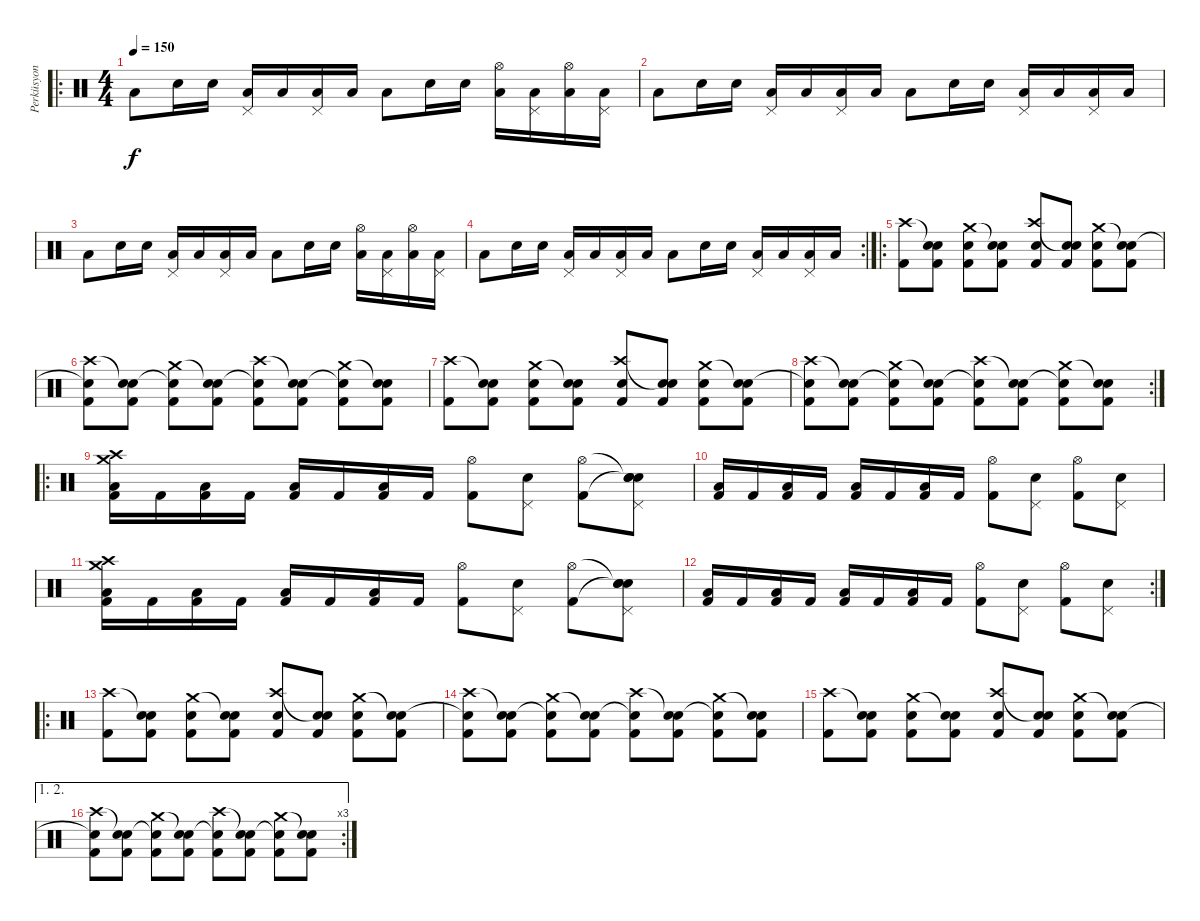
\track ("Perküsyon" "Perküsyon") {instrument percussion}
\staff {score}
\articulation defaults
\ro
\ts (4 4)
\tempo 150
\clef neutral
\ks c "Low Tom (hit)".8{dy f} "Electric Snare (hit)".16 "Electric Snare (hit)".16
("Pedal Hi-Hat (hit)" "Low Tom (hit)").16 "Low Tom (hit)".16 ("Pedal Hi-Hat (hit)" "Low Tom (hit)").16 "Low Tom (hit)".16 "Low Tom (hit)".8 "Electric Snare (hit)".16 "Electric Snare (hit)".16 ("Hi-Hat (open)" "Low Tom (hit)").16 ("Pedal Hi-Hat (hit)" "Low Tom (hit)").16 ("Hi-Hat (open)" "Low Tom (hit)").16 ("Pedal Hi-Hat (hit)" "Low Tom (hit)").16 |
"Low Tom (hit)".8 "Electric Snare (hit)".16 "Electric Snare (hit)".16 ("Pedal Hi-Hat (hit)" "Low Tom (hit)").16 "Low Tom (hit)".16 ("Pedal Hi-Hat (hit)" "Low Tom (hit)").16 "Low Tom (hit)".16 "Low Tom (hit)".8 "Electric Snare (hit)".16 "Electric Snare (hit)".16 ("Pedal Hi-Hat (hit)" "Low Tom (hit)").16 "Low Tom (hit)".16 ("Pedal Hi-Hat (hit)" "Low Tom (hit)").16 "Low Tom (hit)".16 |
"Low Tom (hit)".8 "Electric Snare (hit)".16 "Electric Snare (hit)".16 ("Pedal Hi-Hat (hit)" "Low Tom (hit)").16 "Low Tom (hit)".16 ("Pedal Hi-Hat (hit)" "Low Tom (hit)").16 "Low Tom (hit)".16 "Low Tom (hit)".8 "Electric Snare (hit)".16 "Electric Snare (hit)".16 ("Hi-Hat (open)" "Low Tom (hit)").16 ("Pedal Hi-Hat (hit)" "Low Tom (hit)").16 ("Hi-Hat (open)" "Low Tom (hit)").16 ("Pedal Hi-Hat (hit)" "Low Tom (hit)").16 |
\rc 2 "Low Tom (hit)".8 "Electric Snare (hit)".16 "Electric Snare (hit)".16
("Pedal Hi-Hat (hit)" "Low Tom (hit)").16 "Low Tom (hit)".16 ("Pedal Hi-Hat (hit)" "Low Tom (hit)").16 "Low Tom (hit)".16 "Low Tom (hit)".8 "Electric Snare (hit)".16 "Electric Snare (hit)".16 ("Pedal Hi-Hat (hit)" "Low Tom (hit)").16 "Low Tom (hit)".16 ("Pedal Hi-Hat (hit)" "Low Tom (hit)").16 "Low Tom (hit)".16 |
\ro
("Crash high (hit)" "Kick (hit) 2").8 ("Snare (hit)"{t} "Electric Snare (hit)" "Kick (hit) 2").8 ("Crash medium (hit)" "Electric Snare (hit)" "Kick (hit) 2").8 ("Snare (hit)"{t} "Electric Snare (hit)" "Kick (hit) 2").8 ("Crash high (hit)" "Electric Snare (hit)" "Kick (hit) 2").8 ("Snare (hit)"{t} "Electric Snare (hit)" "Kick (hit) 2").8 ("Crash medium (hit)" "Electric Snare (hit)" "Kick (hit) 2").8 ("Snare (hit)"{t} "Electric Snare (hit)" "Kick (hit) 2").8 |
("Crash high (hit)" "Snare (hit)"{t} "Kick (hit) 2").8 ("Snare (hit)"{t} "Snare (hit) 2" "Kick (hit) 2").8 ("Crash medium (hit)" "Snare (hit)"{t} "Kick (hit) 2").8 ("Snare (hit)"{t} "Snare (hit) 2" "Kick (hit) 2").8 ("Crash high (hit)" "Snare (hit)"{t} "Kick (hit) 2").8 ("Snare (hit)"{t} "Snare (hit) 2" "Kick (hit) 2").8 ("Crash medium (hit)" "Snare (hit)"{t} "Kick (hit) 2").8 ("Snare (hit)"{t} "Snare (hit) 2" "Kick (hit) 2").8 |
("Crash high (hit)" "Kick (hit) 2").8 ("Snare (hit)"{t} "Electric Snare (hit)" "Kick (hit) 2").8 ("Crash medium (hit)" "Electric Snare (hit)" "Kick (hit) 2").8 ("Snare (hit)"{t} "Electric Snare (hit)" "Kick (hit) 2").8 ("Crash high (hit)" "Electric Snare (hit)" "Kick (hit) 2").8 ("Snare (hit)"{t} "Electric Snare (hit)" "Kick (hit) 2").8 ("Crash medium (hit)" "Electric Snare (hit)" "Kick (hit) 2").8 ("Snare (hit)"{t} "Electric Snare (hit)" "Kick (hit) 2").8 |
\rc 2
("Crash high (hit)" "Snare (hit)"{t} "Kick (hit) 2").8 ("Snare (hit)"{t} "Snare (hit) 2" "Kick (hit) 2").8 ("Crash medium (hit)" "Snare (hit)"{t} "Kick (hit) 2").8 ("Snare (hit)"{t} "Snare (hit) 2" "Kick (hit) 2").8 ("Crash high (hit)" "Snare (hit)"{t} "Kick (hit) 2").8 ("Snare (hit)"{t} "Snare (hit) 2" "Kick (hit) 2").8 ("Crash medium (hit)" "Snare (hit)"{t} "Kick (hit) 2").8 ("Snare (hit)"{t} "Snare (hit) 2" "Kick (hit) 2").8 |
\ro
("Crash medium (hit)" "Crash high (hit)" "Low Tom (hit)" "Kick (hit) 2").16 "Kick (hit) 2".16 ("Low Tom (hit)" "Kick (hit) 2").16 "Kick (hit) 2".16 ("Low Tom (hit)" "Kick (hit) 2").16 "Kick (hit) 2".16 ("Low Tom (hit)" "Kick (hit) 2").16 "Kick (hit) 2".16 ("Kick (hit) 2" "Hi-Hat (open)").8 ("Snare (hit) 2" "Pedal Hi-Hat (hit)").8 ("Kick (hit) 2" "Hi-Hat (open)").8 ("Snare (hit)"{t} "Snare (hit)"{t} "Snare (hit) 2" "Pedal Hi-Hat (hit)").8 |
("Low Tom (hit)" "Kick (hit) 2").16 "Kick (hit) 2".16 ("Low Tom (hit)" "Kick (hit) 2").16 "Kick (hit) 2".16 ("Low Tom (hit)" "Kick (hit) 2").16 "Kick (hit) 2".16 ("Low Tom (hit)" "Kick (hit) 2").16 "Kick (hit) 2".16 ("Kick (hit) 2" "Hi-Hat (open)").8 ("Snare (hit) 2" "Pedal Hi-Hat (hit)").8 ("Kick (hit) 2" "Hi-Hat (open)").8 ("Snare (hit) 2" "Pedal Hi-Hat (hit)").8 |
("Crash medium (hit)" "Crash high (hit)" "Low Tom (hit)" "Kick (hit) 2").16 "Kick (hit) 2".16 ("Low Tom (hit)" "Kick (hit) 2").16 "Kick (hit) 2".16 ("Low Tom (hit)" "Kick (hit) 2").16 "Kick (hit) 2".16 ("Low Tom (hit)" "Kick (hit) 2").16 "Kick (hit) 2".16 ("Kick (hit) 2" "Hi-Hat (open)").8 ("Snare (hit) 2" "Pedal Hi-Hat (hit)").8 ("Kick (hit) 2" "Hi-Hat (open)").8 ("Snare (hit)"{t} "Snare (hit)"{t} "Snare (hit) 2" "Pedal Hi-Hat (hit)").8 |
\rc 2
("Low Tom (hit)" "Kick (hit) 2").16 "Kick (hit) 2".16 ("Low Tom (hit)" "Kick (hit) 2").16 "Kick (hit) 2".16 ("Low Tom (hit)" "Kick (hit) 2").16 "Kick (hit) 2".16 ("Low Tom (hit)" "Kick (hit) 2").16 "Kick (hit) 2".16 ("Kick (hit) 2" "Hi-Hat (open)").8 ("Snare (hit) 2" "Pedal Hi-Hat (hit)").8 ("Kick (hit) 2" "Hi-Hat (open)").8 ("Snare (hit) 2" "Pedal Hi-Hat (hit)").8 |
\ro
("Crash high (hit)" "Kick (hit) 2").8 ("Snare (hit)"{t} "Electric Snare (hit)" "Kick (hit) 2").8 ("Crash medium (hit)" "Electric Snare (hit)" "Kick (hit) 2").8 ("Snare (hit)"{t} "Electric Snare (hit)" "Kick (hit) 2").8 ("Crash high (hit)" "Electric Snare (hit)" "Kick (hit) 2").8 ("Snare (hit)"{t} "Electric Snare (hit)" "Kick (hit) 2").8 ("Crash medium (hit)" "Electric Snare (hit)" "Kick (hit) 2").8 ("Snare (hit)"{t} "Electric Snare (hit)" "Kick (hit) 2").8 |
("Crash high (hit)" "Snare (hit)"{t} "Kick (hit) 2").8 ("Snare (hit)"{t} "Snare (hit) 2" "Kick (hit) 2").8 ("Crash medium (hit)" "Snare (hit)"{t} "Kick (hit) 2").8 ("Snare (hit)"{t} "Snare (hit) 2" "Kick (hit) 2").8 ("Crash high (hit)" "Snare (hit)"{t} "Kick (hit) 2").8 ("Snare (hit)"{t} "Snare (hit) 2" "Kick (hit) 2").8 ("Crash medium (hit)" "Snare (hit)"{t} "Kick (hit) 2").8 ("Snare (hit)"{t} "Snare (hit) 2" "Kick (hit) 2").8 |
("Crash high (hit)" "Kick (hit) 2").8 ("Snare (hit)"{t} "Electric Snare (hit)" "Kick (hit) 2").8 ("Crash medium (hit)" "Electric Snare (hit)" "Kick (hit) 2").8 ("Snare (hit)"{t} "Electric Snare (hit)" "Kick (hit) 2").8 ("Crash high (hit)" "Electric Snare (hit)" "Kick (hit) 2").8 ("Snare (hit)"{t} "Electric Snare (hit)" "Kick (hit) 2").8 ("Crash medium (hit)" "Electric Snare (hit)" "Kick (hit) 2").8 ("Snare (hit)"{t} "Electric Snare (hit)" "Kick (hit) 2").8 |
\ae (1 2)
\rc 3
("Crash high (hit)" "Snare (hit)"{t} "Kick (hit) 2").8 ("Snare (hit)"{t} "Snare (hit) 2" "Kick (hit) 2").8 ("Crash medium (hit)" "Snare (hit)"{t} "Kick (hit) 2").8 ("Snare (hit)"{t} "Snare (hit) 2" "Kick (hit) 2").8 ("Crash high (hit)" "Snare (hit)"{t} "Kick (hit) 2").8 ("Snare (hit)"{t} "Snare (hit) 2" "Kick (hit) 2").8 ("Crash medium (hit)" "Snare (hit)"{t} "Kick (hit) 2").8 ("Snare (hit)"{t} "Snare (hit) 2" "Kick (hit) 2").8
